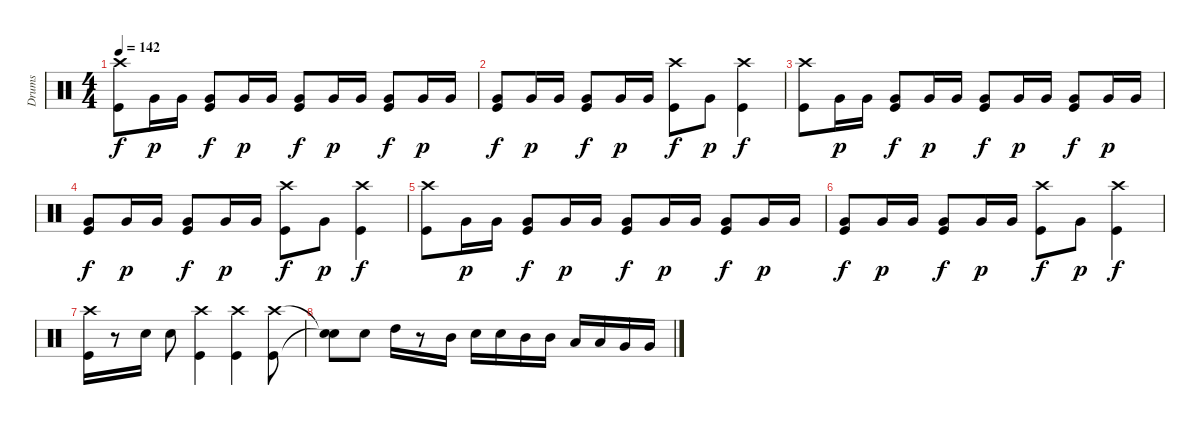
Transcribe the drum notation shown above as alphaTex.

\track ("Drums" "Drums") {instrument percussion}
\staff {score}
\articulation defaults
\ts (4 4)
\tempo 142
\clef neutral
\ks c
("Kick (hit)" "Crash high (hit)").8{dy f} "Very Low Tom (hit)".16{dy p} "Very Low Tom (hit)".16 ("Kick (hit)" "Very Low Tom (hit)").8{dy f} "Very Low Tom (hit)".16{dy p} "Very Low Tom (hit)".16 ("Kick (hit)" "Very Low Tom (hit)").8{dy f} "Very Low Tom (hit)".16{dy p} "Very Low Tom (hit)".16 ("Very Low Tom (hit)" "Kick (hit)").8{dy f} "Very Low Tom (hit)".16{dy p} "Very Low Tom (hit)".16 |
("Very Low Tom (hit)" "Kick (hit)").8{dy f} "Very Low Tom (hit)".16{dy p} "Very Low Tom (hit)".16 ("Very Low Tom (hit)" "Kick (hit)").8{dy f} "Very Low Tom (hit)".16{dy p} "Very Low Tom (hit)".16 ("Kick (hit)" "Crash high (hit)").8{dy f} "Very Low Tom (hit)".8{dy p} ("Crash high (hit)" "Kick (hit)").4{dy f} |
("Kick (hit)" "Crash high (hit)").8 "Very Low Tom (hit)".16{dy p} "Very Low Tom (hit)".16 ("Kick (hit)" "Very Low Tom (hit)").8{dy f} "Very Low Tom (hit)".16{dy p} "Very Low Tom (hit)".16 ("Kick (hit)" "Very Low Tom (hit)").8{dy f} "Very Low Tom (hit)".16{dy p} "Very Low Tom (hit)".16 ("Very Low Tom (hit)" "Kick (hit)").8{dy f} "Very Low Tom (hit)".16{dy p} "Very Low Tom (hit)".16 |
("Very Low Tom (hit)" "Kick (hit)").8{dy f} "Very Low Tom (hit)".16{dy p} "Very Low Tom (hit)".16 ("Very Low Tom (hit)" "Kick (hit)").8{dy f} "Very Low Tom (hit)".16{dy p} "Very Low Tom (hit)".16 ("Kick (hit)" "Crash high (hit)").8{dy f} "Very Low Tom (hit)".8{dy p} ("Crash high (hit)" "Kick (hit)").4{dy f} |
("Kick (hit)" "Crash high (hit)").8{volume 7} "Very Low Tom (hit)".16{dy p} "Very Low Tom (hit)".16 ("Kick (hit)" "Very Low Tom (hit)").8{dy f} "Very Low Tom (hit)".16{dy p} "Very Low Tom (hit)".16 ("Kick (hit)" "Very Low Tom (hit)").8{dy f} "Very Low Tom (hit)".16{dy p} "Very Low Tom (hit)".16 ("Very Low Tom (hit)" "Kick (hit)").8{dy f} "Very Low Tom (hit)".16{dy p} "Very Low Tom (hit)".16 |
("Very Low Tom (hit)" "Kick (hit)").8{dy f} "Very Low Tom (hit)".16{dy p} "Very Low Tom (hit)".16 ("Very Low Tom (hit)" "Kick (hit)").8{dy f} "Very Low Tom (hit)".16{dy p} "Very Low Tom (hit)".16 ("Kick (hit)" "Crash high (hit)").8{dy f} "Very Low Tom (hit)".8{dy p} ("Crash high (hit)" "Kick (hit)").4{dy f} |
("Crash high (hit)" "Kick (hit)").16{volume 0} r.8 "Snare (hit) 2".16 "Snare (hit) 2".8 ("Kick (hit)" "Crash high (hit)").4 ("Crash high (hit)" "Kick (hit)").4 ("Crash high (hit)" "Kick (hit)").8 |
("Snare (hit)"{t} "Snare (hit)"{t}).8 "Snare (hit) 2".8 "High Tom (hit)".16 r.8 "Mid Tom (hit)".16 "Snare (hit) 2".16 "Snare (hit) 2".16 "Mid Tom (hit)".16 "Mid Tom (hit)".16 "Low Tom (hit)".16 "Low Tom (hit)".16 "Very Low Tom (hit)".16 "Very Low Tom (hit)".16
